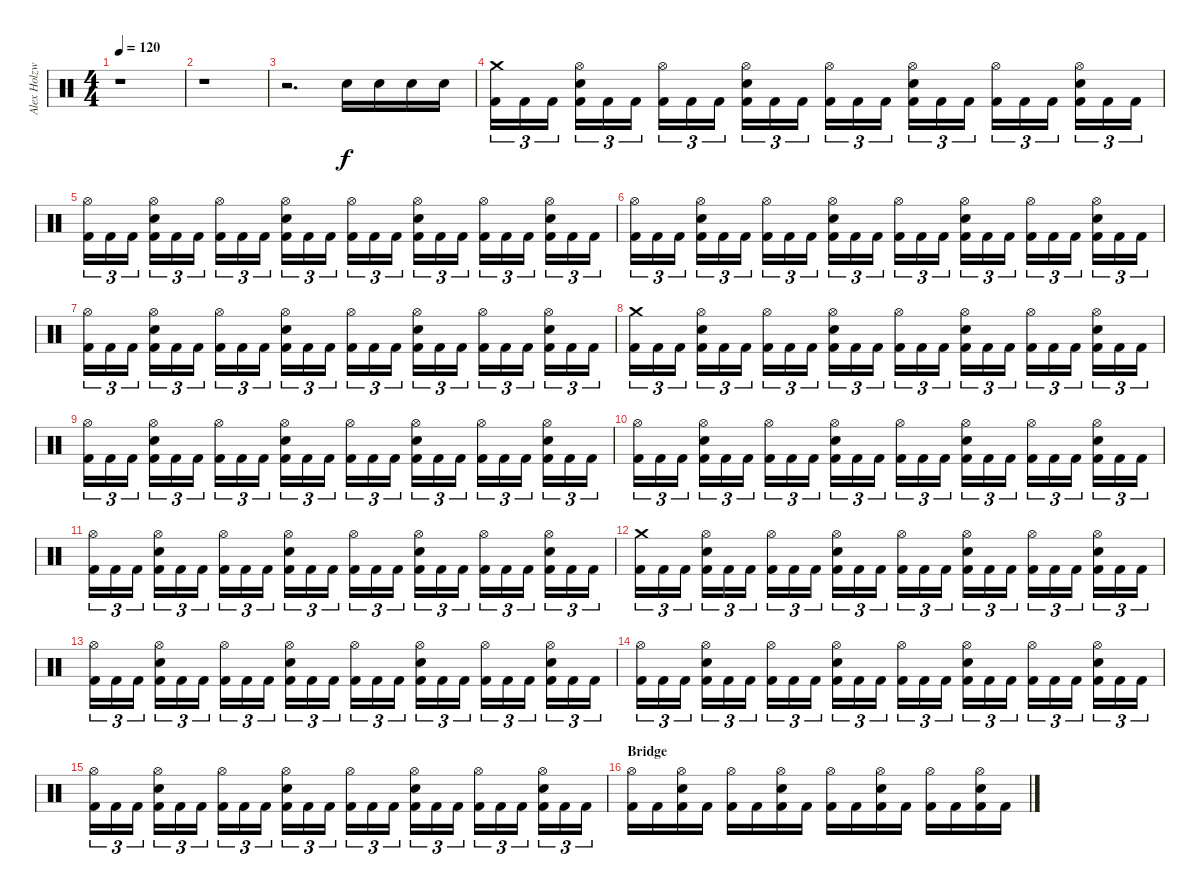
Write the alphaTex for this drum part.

\track ("Alex Holzwarth - Drums" "Alex Holzw") {instrument percussion}
\staff {score}
\articulation defaults
\ts (4 4)
\tempo 120
\clef neutral
\ks c
r.1{dy f} |
r.1 |
r.2{d} "Electric Snare (hit)".16 "Electric Snare (hit)".16 "Electric Snare (hit)".16 "Electric Snare (hit)".16 |
("Crash medium (hit)" "Kick (hit) 2").16{tu (3 2)} "Kick (hit) 2".16{tu (3 2)} "Kick (hit) 2".16{tu (3 2)} ("Hi-Hat (open)" "Electric Snare (hit)" "Kick (hit) 2").16{tu (3 2)} "Kick (hit) 2".16{tu (3 2)} "Kick (hit) 2".16{tu (3 2)} ("Hi-Hat (open)" "Kick (hit) 2").16{tu (3 2)} "Kick (hit) 2".16{tu (3 2)} "Kick (hit) 2".16{tu (3 2)} ("Hi-Hat (open)" "Electric Snare (hit)" "Kick (hit) 2").16{tu (3 2)} "Kick (hit) 2".16{tu (3 2)} "Kick (hit) 2".16{tu (3 2)} ("Hi-Hat (open)" "Kick (hit) 2").16{tu (3 2)} "Kick (hit) 2".16{tu (3 2)} "Kick (hit) 2".16{tu (3 2)} ("Hi-Hat (open)" "Electric Snare (hit)" "Kick (hit) 2").16{tu (3 2)} "Kick (hit) 2".16{tu (3 2)} "Kick (hit) 2".16{tu (3 2)} ("Hi-Hat (open)" "Kick (hit) 2").16{tu (3 2)} "Kick (hit) 2".16{tu (3 2)} "Kick (hit) 2".16{tu (3 2)} ("Hi-Hat (open)" "Electric Snare (hit)" "Kick (hit) 2").16{tu (3 2)} "Kick (hit) 2".16{tu (3 2)} "Kick (hit) 2".16{tu (3 2)} |
("Hi-Hat (open)" "Kick (hit) 2").16{tu (3 2)} "Kick (hit) 2".16{tu (3 2)} "Kick (hit) 2".16{tu (3 2)} ("Hi-Hat (open)" "Electric Snare (hit)" "Kick (hit) 2").16{tu (3 2)} "Kick (hit) 2".16{tu (3 2)} "Kick (hit) 2".16{tu (3 2)} ("Hi-Hat (open)" "Kick (hit) 2").16{tu (3 2)} "Kick (hit) 2".16{tu (3 2)} "Kick (hit) 2".16{tu (3 2)} ("Hi-Hat (open)" "Electric Snare (hit)" "Kick (hit) 2").16{tu (3 2)} "Kick (hit) 2".16{tu (3 2)} "Kick (hit) 2".16{tu (3 2)} ("Hi-Hat (open)" "Kick (hit) 2").16{tu (3 2)} "Kick (hit) 2".16{tu (3 2)} "Kick (hit) 2".16{tu (3 2)} ("Hi-Hat (open)" "Electric Snare (hit)" "Kick (hit) 2").16{tu (3 2)} "Kick (hit) 2".16{tu (3 2)} "Kick (hit) 2".16{tu (3 2)} ("Hi-Hat (open)" "Kick (hit) 2").16{tu (3 2)} "Kick (hit) 2".16{tu (3 2)} "Kick (hit) 2".16{tu (3 2)} ("Hi-Hat (open)" "Electric Snare (hit)" "Kick (hit) 2").16{tu (3 2)} "Kick (hit) 2".16{tu (3 2)} "Kick (hit) 2".16{tu (3 2)} |
("Hi-Hat (open)" "Kick (hit) 2").16{tu (3 2)} "Kick (hit) 2".16{tu (3 2)} "Kick (hit) 2".16{tu (3 2)} ("Hi-Hat (open)" "Electric Snare (hit)" "Kick (hit) 2").16{tu (3 2)} "Kick (hit) 2".16{tu (3 2)} "Kick (hit) 2".16{tu (3 2)} ("Hi-Hat (open)" "Kick (hit) 2").16{tu (3 2)} "Kick (hit) 2".16{tu (3 2)} "Kick (hit) 2".16{tu (3 2)} ("Hi-Hat (open)" "Electric Snare (hit)" "Kick (hit) 2").16{tu (3 2)} "Kick (hit) 2".16{tu (3 2)} "Kick (hit) 2".16{tu (3 2)} ("Hi-Hat (open)" "Kick (hit) 2").16{tu (3 2)} "Kick (hit) 2".16{tu (3 2)} "Kick (hit) 2".16{tu (3 2)} ("Hi-Hat (open)" "Electric Snare (hit)" "Kick (hit) 2").16{tu (3 2)} "Kick (hit) 2".16{tu (3 2)} "Kick (hit) 2".16{tu (3 2)} ("Hi-Hat (open)" "Kick (hit) 2").16{tu (3 2)} "Kick (hit) 2".16{tu (3 2)} "Kick (hit) 2".16{tu (3 2)} ("Hi-Hat (open)" "Electric Snare (hit)" "Kick (hit) 2").16{tu (3 2)} "Kick (hit) 2".16{tu (3 2)} "Kick (hit) 2".16{tu (3 2)} |
("Hi-Hat (open)" "Kick (hit) 2").16{tu (3 2)} "Kick (hit) 2".16{tu (3 2)} "Kick (hit) 2".16{tu (3 2)} ("Hi-Hat (open)" "Electric Snare (hit)" "Kick (hit) 2").16{tu (3 2)} "Kick (hit) 2".16{tu (3 2)} "Kick (hit) 2".16{tu (3 2)} ("Hi-Hat (open)" "Kick (hit) 2").16{tu (3 2)} "Kick (hit) 2".16{tu (3 2)} "Kick (hit) 2".16{tu (3 2)} ("Hi-Hat (open)" "Electric Snare (hit)" "Kick (hit) 2").16{tu (3 2)} "Kick (hit) 2".16{tu (3 2)} "Kick (hit) 2".16{tu (3 2)} ("Hi-Hat (open)" "Kick (hit) 2").16{tu (3 2)} "Kick (hit) 2".16{tu (3 2)} "Kick (hit) 2".16{tu (3 2)} ("Hi-Hat (open)" "Electric Snare (hit)" "Kick (hit) 2").16{tu (3 2)} "Kick (hit) 2".16{tu (3 2)} "Kick (hit) 2".16{tu (3 2)} ("Hi-Hat (open)" "Kick (hit) 2").16{tu (3 2)} "Kick (hit) 2".16{tu (3 2)} "Kick (hit) 2".16{tu (3 2)} ("Hi-Hat (open)" "Electric Snare (hit)" "Kick (hit) 2").16{tu (3 2)} "Kick (hit) 2".16{tu (3 2)} "Kick (hit) 2".16{tu (3 2)} |
("Crash medium (hit)" "Kick (hit) 2").16{tu (3 2)} "Kick (hit) 2".16{tu (3 2)} "Kick (hit) 2".16{tu (3 2)} ("Hi-Hat (open)" "Electric Snare (hit)" "Kick (hit) 2").16{tu (3 2)} "Kick (hit) 2".16{tu (3 2)} "Kick (hit) 2".16{tu (3 2)} ("Hi-Hat (open)" "Kick (hit) 2").16{tu (3 2)} "Kick (hit) 2".16{tu (3 2)} "Kick (hit) 2".16{tu (3 2)} ("Hi-Hat (open)" "Electric Snare (hit)" "Kick (hit) 2").16{tu (3 2)} "Kick (hit) 2".16{tu (3 2)} "Kick (hit) 2".16{tu (3 2)} ("Hi-Hat (open)" "Kick (hit) 2").16{tu (3 2)} "Kick (hit) 2".16{tu (3 2)} "Kick (hit) 2".16{tu (3 2)} ("Hi-Hat (open)" "Electric Snare (hit)" "Kick (hit) 2").16{tu (3 2)} "Kick (hit) 2".16{tu (3 2)} "Kick (hit) 2".16{tu (3 2)} ("Hi-Hat (open)" "Kick (hit) 2").16{tu (3 2)} "Kick (hit) 2".16{tu (3 2)} "Kick (hit) 2".16{tu (3 2)} ("Hi-Hat (open)" "Electric Snare (hit)" "Kick (hit) 2").16{tu (3 2)} "Kick (hit) 2".16{tu (3 2)} "Kick (hit) 2".16{tu (3 2)} |
("Hi-Hat (open)" "Kick (hit) 2").16{tu (3 2)} "Kick (hit) 2".16{tu (3 2)} "Kick (hit) 2".16{tu (3 2)} ("Hi-Hat (open)" "Electric Snare (hit)" "Kick (hit) 2").16{tu (3 2)} "Kick (hit) 2".16{tu (3 2)} "Kick (hit) 2".16{tu (3 2)} ("Hi-Hat (open)" "Kick (hit) 2").16{tu (3 2)} "Kick (hit) 2".16{tu (3 2)} "Kick (hit) 2".16{tu (3 2)} ("Hi-Hat (open)" "Electric Snare (hit)" "Kick (hit) 2").16{tu (3 2)} "Kick (hit) 2".16{tu (3 2)} "Kick (hit) 2".16{tu (3 2)} ("Hi-Hat (open)" "Kick (hit) 2").16{tu (3 2)} "Kick (hit) 2".16{tu (3 2)} "Kick (hit) 2".16{tu (3 2)} ("Hi-Hat (open)" "Electric Snare (hit)" "Kick (hit) 2").16{tu (3 2)} "Kick (hit) 2".16{tu (3 2)} "Kick (hit) 2".16{tu (3 2)} ("Hi-Hat (open)" "Kick (hit) 2").16{tu (3 2)} "Kick (hit) 2".16{tu (3 2)} "Kick (hit) 2".16{tu (3 2)} ("Hi-Hat (open)" "Electric Snare (hit)" "Kick (hit) 2").16{tu (3 2)} "Kick (hit) 2".16{tu (3 2)} "Kick (hit) 2".16{tu (3 2)} |
("Hi-Hat (open)" "Kick (hit) 2").16{tu (3 2)} "Kick (hit) 2".16{tu (3 2)} "Kick (hit) 2".16{tu (3 2)} ("Hi-Hat (open)" "Electric Snare (hit)" "Kick (hit) 2").16{tu (3 2)} "Kick (hit) 2".16{tu (3 2)} "Kick (hit) 2".16{tu (3 2)} ("Hi-Hat (open)" "Kick (hit) 2").16{tu (3 2)} "Kick (hit) 2".16{tu (3 2)} "Kick (hit) 2".16{tu (3 2)} ("Hi-Hat (open)" "Electric Snare (hit)" "Kick (hit) 2").16{tu (3 2)} "Kick (hit) 2".16{tu (3 2)} "Kick (hit) 2".16{tu (3 2)} ("Hi-Hat (open)" "Kick (hit) 2").16{tu (3 2)} "Kick (hit) 2".16{tu (3 2)} "Kick (hit) 2".16{tu (3 2)} ("Hi-Hat (open)" "Electric Snare (hit)" "Kick (hit) 2").16{tu (3 2)} "Kick (hit) 2".16{tu (3 2)} "Kick (hit) 2".16{tu (3 2)} ("Hi-Hat (open)" "Kick (hit) 2").16{tu (3 2)} "Kick (hit) 2".16{tu (3 2)} "Kick (hit) 2".16{tu (3 2)} ("Hi-Hat (open)" "Electric Snare (hit)" "Kick (hit) 2").16{tu (3 2)} "Kick (hit) 2".16{tu (3 2)} "Kick (hit) 2".16{tu (3 2)} |
("Hi-Hat (open)" "Kick (hit) 2").16{tu (3 2)} "Kick (hit) 2".16{tu (3 2)} "Kick (hit) 2".16{tu (3 2)} ("Hi-Hat (open)" "Electric Snare (hit)" "Kick (hit) 2").16{tu (3 2)} "Kick (hit) 2".16{tu (3 2)} "Kick (hit) 2".16{tu (3 2)} ("Hi-Hat (open)" "Kick (hit) 2").16{tu (3 2)} "Kick (hit) 2".16{tu (3 2)} "Kick (hit) 2".16{tu (3 2)} ("Hi-Hat (open)" "Electric Snare (hit)" "Kick (hit) 2").16{tu (3 2)} "Kick (hit) 2".16{tu (3 2)} "Kick (hit) 2".16{tu (3 2)} ("Hi-Hat (open)" "Kick (hit) 2").16{tu (3 2)} "Kick (hit) 2".16{tu (3 2)} "Kick (hit) 2".16{tu (3 2)} ("Hi-Hat (open)" "Electric Snare (hit)" "Kick (hit) 2").16{tu (3 2)} "Kick (hit) 2".16{tu (3 2)} "Kick (hit) 2".16{tu (3 2)} ("Hi-Hat (open)" "Kick (hit) 2").16{tu (3 2)} "Kick (hit) 2".16{tu (3 2)} "Kick (hit) 2".16{tu (3 2)} ("Hi-Hat (open)" "Electric Snare (hit)" "Kick (hit) 2").16{tu (3 2)} "Kick (hit) 2".16{tu (3 2)} "Kick (hit) 2".16{tu (3 2)} |
("Crash medium (hit)" "Kick (hit) 2").16{tu (3 2)} "Kick (hit) 2".16{tu (3 2)} "Kick (hit) 2".16{tu (3 2)} ("Hi-Hat (open)" "Electric Snare (hit)" "Kick (hit) 2").16{tu (3 2)} "Kick (hit) 2".16{tu (3 2)} "Kick (hit) 2".16{tu (3 2)} ("Hi-Hat (open)" "Kick (hit) 2").16{tu (3 2)} "Kick (hit) 2".16{tu (3 2)} "Kick (hit) 2".16{tu (3 2)} ("Hi-Hat (open)" "Electric Snare (hit)" "Kick (hit) 2").16{tu (3 2)} "Kick (hit) 2".16{tu (3 2)} "Kick (hit) 2".16{tu (3 2)} ("Hi-Hat (open)" "Kick (hit) 2").16{tu (3 2)} "Kick (hit) 2".16{tu (3 2)} "Kick (hit) 2".16{tu (3 2)} ("Hi-Hat (open)" "Electric Snare (hit)" "Kick (hit) 2").16{tu (3 2)} "Kick (hit) 2".16{tu (3 2)} "Kick (hit) 2".16{tu (3 2)} ("Hi-Hat (open)" "Kick (hit) 2").16{tu (3 2)} "Kick (hit) 2".16{tu (3 2)} "Kick (hit) 2".16{tu (3 2)} ("Hi-Hat (open)" "Electric Snare (hit)" "Kick (hit) 2").16{tu (3 2)} "Kick (hit) 2".16{tu (3 2)} "Kick (hit) 2".16{tu (3 2)} |
("Hi-Hat (open)" "Kick (hit) 2").16{tu (3 2)} "Kick (hit) 2".16{tu (3 2)} "Kick (hit) 2".16{tu (3 2)} ("Hi-Hat (open)" "Electric Snare (hit)" "Kick (hit) 2").16{tu (3 2)} "Kick (hit) 2".16{tu (3 2)} "Kick (hit) 2".16{tu (3 2)} ("Hi-Hat (open)" "Kick (hit) 2").16{tu (3 2)} "Kick (hit) 2".16{tu (3 2)} "Kick (hit) 2".16{tu (3 2)} ("Hi-Hat (open)" "Electric Snare (hit)" "Kick (hit) 2").16{tu (3 2)} "Kick (hit) 2".16{tu (3 2)} "Kick (hit) 2".16{tu (3 2)} ("Hi-Hat (open)" "Kick (hit) 2").16{tu (3 2)} "Kick (hit) 2".16{tu (3 2)} "Kick (hit) 2".16{tu (3 2)} ("Hi-Hat (open)" "Electric Snare (hit)" "Kick (hit) 2").16{tu (3 2)} "Kick (hit) 2".16{tu (3 2)} "Kick (hit) 2".16{tu (3 2)} ("Hi-Hat (open)" "Kick (hit) 2").16{tu (3 2)} "Kick (hit) 2".16{tu (3 2)} "Kick (hit) 2".16{tu (3 2)} ("Hi-Hat (open)" "Electric Snare (hit)" "Kick (hit) 2").16{tu (3 2)} "Kick (hit) 2".16{tu (3 2)} "Kick (hit) 2".16{tu (3 2)} |
("Hi-Hat (open)" "Kick (hit) 2").16{tu (3 2)} "Kick (hit) 2".16{tu (3 2)} "Kick (hit) 2".16{tu (3 2)} ("Hi-Hat (open)" "Electric Snare (hit)" "Kick (hit) 2").16{tu (3 2)} "Kick (hit) 2".16{tu (3 2)} "Kick (hit) 2".16{tu (3 2)} ("Hi-Hat (open)" "Kick (hit) 2").16{tu (3 2)} "Kick (hit) 2".16{tu (3 2)} "Kick (hit) 2".16{tu (3 2)} ("Hi-Hat (open)" "Electric Snare (hit)" "Kick (hit) 2").16{tu (3 2)} "Kick (hit) 2".16{tu (3 2)} "Kick (hit) 2".16{tu (3 2)} ("Hi-Hat (open)" "Kick (hit) 2").16{tu (3 2)} "Kick (hit) 2".16{tu (3 2)} "Kick (hit) 2".16{tu (3 2)} ("Hi-Hat (open)" "Electric Snare (hit)" "Kick (hit) 2").16{tu (3 2)} "Kick (hit) 2".16{tu (3 2)} "Kick (hit) 2".16{tu (3 2)} ("Hi-Hat (open)" "Kick (hit) 2").16{tu (3 2)} "Kick (hit) 2".16{tu (3 2)} "Kick (hit) 2".16{tu (3 2)} ("Hi-Hat (open)" "Electric Snare (hit)" "Kick (hit) 2").16{tu (3 2)} "Kick (hit) 2".16{tu (3 2)} "Kick (hit) 2".16{tu (3 2)} |
("Hi-Hat (open)" "Kick (hit) 2").16{tu (3 2)} "Kick (hit) 2".16{tu (3 2)} "Kick (hit) 2".16{tu (3 2)} ("Hi-Hat (open)" "Electric Snare (hit)" "Kick (hit) 2").16{tu (3 2)} "Kick (hit) 2".16{tu (3 2)} "Kick (hit) 2".16{tu (3 2)} ("Hi-Hat (open)" "Kick (hit) 2").16{tu (3 2)} "Kick (hit) 2".16{tu (3 2)} "Kick (hit) 2".16{tu (3 2)} ("Hi-Hat (open)" "Electric Snare (hit)" "Kick (hit) 2").16{tu (3 2)} "Kick (hit) 2".16{tu (3 2)} "Kick (hit) 2".16{tu (3 2)} ("Hi-Hat (open)" "Kick (hit) 2").16{tu (3 2)} "Kick (hit) 2".16{tu (3 2)} "Kick (hit) 2".16{tu (3 2)} ("Hi-Hat (open)" "Electric Snare (hit)" "Kick (hit) 2").16{tu (3 2)} "Kick (hit) 2".16{tu (3 2)} "Kick (hit) 2".16{tu (3 2)} ("Hi-Hat (open)" "Kick (hit) 2").16{tu (3 2)} "Kick (hit) 2".16{tu (3 2)} "Kick (hit) 2".16{tu (3 2)} ("Hi-Hat (open)" "Electric Snare (hit)" "Kick (hit) 2").16{tu (3 2)} "Kick (hit) 2".16{tu (3 2)} "Kick (hit) 2".16{tu (3 2)} |
\section ("" "Bridge")
("Hi-Hat (open)" "Kick (hit) 2").16 "Kick (hit) 2".16 ("Hi-Hat (open)" "Electric Snare (hit)" "Kick (hit) 2").16 "Kick (hit) 2".16 ("Hi-Hat (open)" "Kick (hit) 2").16 "Kick (hit) 2".16 ("Hi-Hat (open)" "Electric Snare (hit)" "Kick (hit) 2").16 "Kick (hit) 2".16 ("Hi-Hat (open)" "Kick (hit) 2").16 "Kick (hit) 2".16 ("Hi-Hat (open)" "Electric Snare (hit)" "Kick (hit) 2").16 "Kick (hit) 2".16 ("Hi-Hat (open)" "Kick (hit) 2").16 "Kick (hit) 2".16 ("Hi-Hat (open)" "Electric Snare (hit)" "Kick (hit) 2").16 "Kick (hit) 2".16
